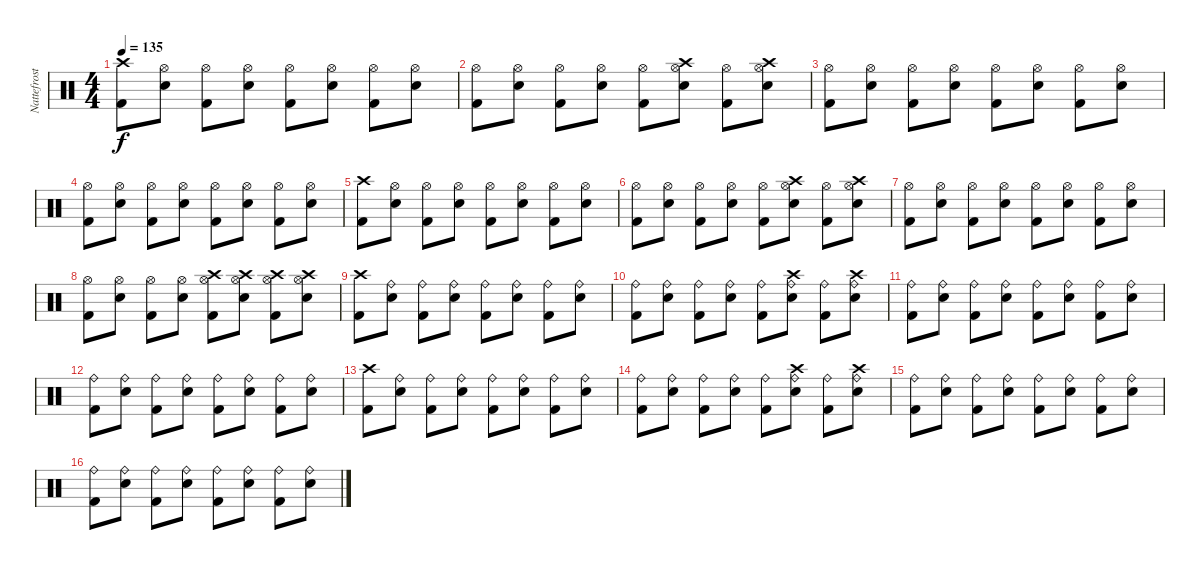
\track ("Nattefrost" "Nattefrost") {instrument percussion}
\staff {score}
\articulation defaults
\ts (4 4)
\tempo 135
\clef neutral
\ks c
("Crash high (hit)" "Kick (hit) 2").8{dy f} ("Hi-Hat (open)" "Snare (hit) 2").8 ("Hi-Hat (open)" "Kick (hit) 2").8 ("Hi-Hat (open)" "Snare (hit) 2").8 ("Hi-Hat (open)" "Kick (hit) 2").8 ("Hi-Hat (open)" "Snare (hit) 2").8 ("Hi-Hat (open)" "Kick (hit) 2").8 ("Hi-Hat (open)" "Snare (hit) 2").8 |
("Hi-Hat (open)" "Kick (hit) 2").8 ("Hi-Hat (open)" "Snare (hit) 2").8 ("Hi-Hat (open)" "Kick (hit) 2").8 ("Hi-Hat (open)" "Snare (hit) 2").8 ("Hi-Hat (open)" "Kick (hit) 2").8 ("Crash high (hit)" "Hi-Hat (open)" "Snare (hit) 2").8 ("Hi-Hat (open)" "Kick (hit) 2").8 ("Crash high (hit)" "Hi-Hat (open)" "Snare (hit) 2").8 |
("Hi-Hat (open)" "Kick (hit) 2").8 ("Hi-Hat (open)" "Snare (hit) 2").8 ("Hi-Hat (open)" "Kick (hit) 2").8 ("Hi-Hat (open)" "Snare (hit) 2").8 ("Hi-Hat (open)" "Kick (hit) 2").8 ("Hi-Hat (open)" "Snare (hit) 2").8 ("Hi-Hat (open)" "Kick (hit) 2").8 ("Hi-Hat (open)" "Snare (hit) 2").8 |
("Hi-Hat (open)" "Kick (hit) 2").8 ("Hi-Hat (open)" "Snare (hit) 2").8 ("Hi-Hat (open)" "Kick (hit) 2").8 ("Hi-Hat (open)" "Snare (hit) 2").8 ("Hi-Hat (open)" "Kick (hit) 2").8 ("Hi-Hat (open)" "Snare (hit) 2").8 ("Hi-Hat (open)" "Kick (hit) 2").8 ("Hi-Hat (open)" "Snare (hit) 2").8 |
("Crash high (hit)" "Kick (hit) 2").8 ("Hi-Hat (open)" "Snare (hit) 2").8 ("Hi-Hat (open)" "Kick (hit) 2").8 ("Hi-Hat (open)" "Snare (hit) 2").8 ("Hi-Hat (open)" "Kick (hit) 2").8 ("Hi-Hat (open)" "Snare (hit) 2").8 ("Hi-Hat (open)" "Kick (hit) 2").8 ("Hi-Hat (open)" "Snare (hit) 2").8 |
("Hi-Hat (open)" "Kick (hit) 2").8 ("Hi-Hat (open)" "Snare (hit) 2").8 ("Hi-Hat (open)" "Kick (hit) 2").8 ("Hi-Hat (open)" "Snare (hit) 2").8 ("Hi-Hat (open)" "Kick (hit) 2").8 ("Crash high (hit)" "Hi-Hat (open)" "Snare (hit) 2").8 ("Hi-Hat (open)" "Kick (hit) 2").8 ("Crash high (hit)" "Hi-Hat (open)" "Snare (hit) 2").8 |
("Hi-Hat (open)" "Kick (hit) 2").8 ("Hi-Hat (open)" "Snare (hit) 2").8 ("Hi-Hat (open)" "Kick (hit) 2").8 ("Hi-Hat (open)" "Snare (hit) 2").8 ("Hi-Hat (open)" "Kick (hit) 2").8 ("Hi-Hat (open)" "Snare (hit) 2").8 ("Hi-Hat (open)" "Kick (hit) 2").8 ("Hi-Hat (open)" "Snare (hit) 2").8 |
("Hi-Hat (open)" "Kick (hit) 2").8 ("Hi-Hat (open)" "Snare (hit) 2").8 ("Hi-Hat (open)" "Kick (hit) 2").8 ("Hi-Hat (open)" "Snare (hit) 2").8 ("Crash high (hit)" "Hi-Hat (open)" "Kick (hit) 2").8 ("Crash high (hit)" "Hi-Hat (open)" "Snare (hit) 2").8 ("Crash high (hit)" "Hi-Hat (open)" "Kick (hit) 2").8 ("Crash high (hit)" "Hi-Hat (open)" "Snare (hit) 2").8 |
("Crash high (hit)" "Kick (hit) 2").8 ("Ride (bell)" "Snare (hit) 2").8 ("Ride (bell)" "Kick (hit) 2").8 ("Ride (bell)" "Snare (hit) 2").8 ("Ride (bell)" "Kick (hit) 2").8 ("Ride (bell)" "Snare (hit) 2").8 ("Ride (bell)" "Kick (hit) 2").8 ("Ride (bell)" "Snare (hit) 2").8 |
("Ride (bell)" "Kick (hit) 2").8 ("Ride (bell)" "Snare (hit) 2").8 ("Ride (bell)" "Kick (hit) 2").8 ("Ride (bell)" "Snare (hit) 2").8 ("Ride (bell)" "Kick (hit) 2").8 ("Crash high (hit)" "Ride (bell)" "Snare (hit) 2").8 ("Ride (bell)" "Kick (hit) 2").8 ("Crash high (hit)" "Ride (bell)" "Snare (hit) 2").8 |
("Ride (bell)" "Kick (hit) 2").8 ("Ride (bell)" "Snare (hit) 2").8 ("Ride (bell)" "Kick (hit) 2").8 ("Ride (bell)" "Snare (hit) 2").8 ("Ride (bell)" "Kick (hit) 2").8 ("Ride (bell)" "Snare (hit) 2").8 ("Ride (bell)" "Kick (hit) 2").8 ("Ride (bell)" "Snare (hit) 2").8 |
("Ride (bell)" "Kick (hit) 2").8 ("Ride (bell)" "Snare (hit) 2").8 ("Ride (bell)" "Kick (hit) 2").8 ("Ride (bell)" "Snare (hit) 2").8 ("Ride (bell)" "Kick (hit) 2").8 ("Ride (bell)" "Snare (hit) 2").8 ("Ride (bell)" "Kick (hit) 2").8 ("Ride (bell)" "Snare (hit) 2").8 |
("Crash high (hit)" "Kick (hit) 2").8 ("Ride (bell)" "Snare (hit) 2").8 ("Ride (bell)" "Kick (hit) 2").8 ("Ride (bell)" "Snare (hit) 2").8 ("Ride (bell)" "Kick (hit) 2").8 ("Ride (bell)" "Snare (hit) 2").8 ("Ride (bell)" "Kick (hit) 2").8 ("Ride (bell)" "Snare (hit) 2").8 |
("Ride (bell)" "Kick (hit) 2").8 ("Ride (bell)" "Snare (hit) 2").8 ("Ride (bell)" "Kick (hit) 2").8 ("Ride (bell)" "Snare (hit) 2").8 ("Ride (bell)" "Kick (hit) 2").8 ("Crash high (hit)" "Ride (bell)" "Snare (hit) 2").8 ("Ride (bell)" "Kick (hit) 2").8 ("Crash high (hit)" "Ride (bell)" "Snare (hit) 2").8 |
("Ride (bell)" "Kick (hit) 2").8 ("Ride (bell)" "Snare (hit) 2").8 ("Ride (bell)" "Kick (hit) 2").8 ("Ride (bell)" "Snare (hit) 2").8 ("Ride (bell)" "Kick (hit) 2").8 ("Ride (bell)" "Snare (hit) 2").8 ("Ride (bell)" "Kick (hit) 2").8 ("Ride (bell)" "Snare (hit) 2").8 |
("Ride (bell)" "Kick (hit) 2").8 ("Ride (bell)" "Snare (hit) 2").8 ("Ride (bell)" "Kick (hit) 2").8 ("Ride (bell)" "Snare (hit) 2").8 ("Ride (bell)" "Kick (hit) 2").8 ("Ride (bell)" "Snare (hit) 2").8 ("Ride (bell)" "Kick (hit) 2").8 ("Ride (bell)" "Snare (hit) 2").8
